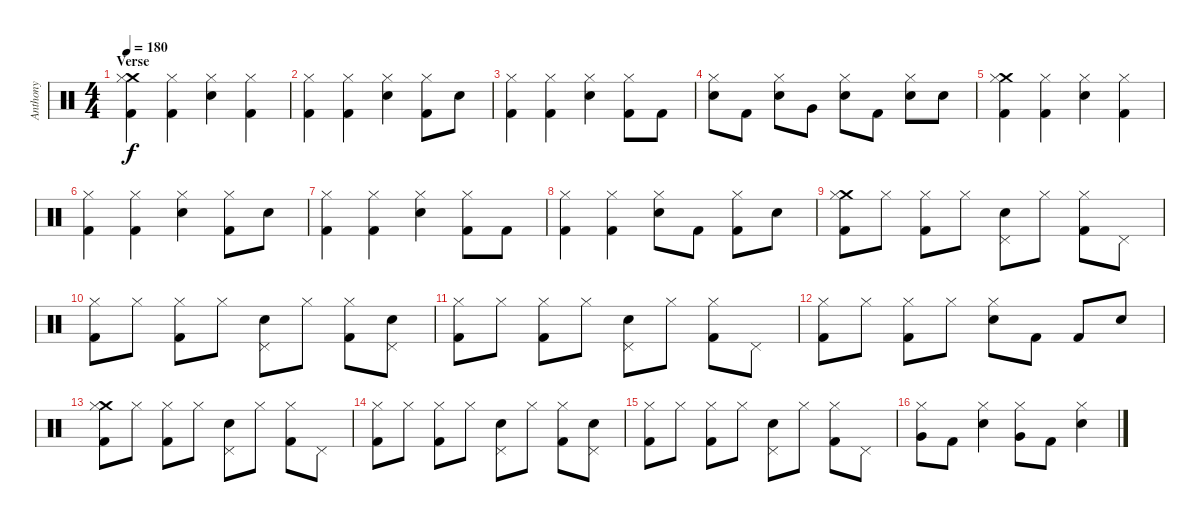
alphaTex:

\track ("Anthony" "Anthony") {instrument percussion}
\staff {score}
\articulation defaults
\ts (4 4)
\section ("" "Verse")
\tempo 180
\clef neutral
\ks c
("Crash medium (hit)" "Hi-Hat (closed)" "Kick (hit) 2").4{dy f} ("Hi-Hat (closed)" "Kick (hit) 2").4 ("Hi-Hat (closed)" "Electric Snare (hit)").4 ("Hi-Hat (closed)" "Kick (hit) 2").4 |
("Hi-Hat (closed)" "Kick (hit) 2").4 ("Hi-Hat (closed)" "Kick (hit) 2").4 ("Hi-Hat (closed)" "Electric Snare (hit)").4 ("Hi-Hat (closed)" "Kick (hit) 2").8 "Electric Snare (hit)".8 |
("Hi-Hat (closed)" "Kick (hit) 2").4 ("Hi-Hat (closed)" "Kick (hit) 2").4 ("Hi-Hat (closed)" "Electric Snare (hit)").4 ("Hi-Hat (closed)" "Kick (hit) 2").8 "Kick (hit) 2".8 |
("Hi-Hat (closed)" "Electric Snare (hit)").8 "Kick (hit) 2".8 ("Hi-Hat (closed)" "Electric Snare (hit)").8 "Very Low Tom (hit)".8 ("Hi-Hat (closed)" "Electric Snare (hit)").8 "Kick (hit) 2".8 ("Hi-Hat (closed)" "Electric Snare (hit)").8 "Electric Snare (hit)".8 |
("Crash medium (hit)" "Hi-Hat (closed)" "Kick (hit) 2").4 ("Hi-Hat (closed)" "Kick (hit) 2").4 ("Hi-Hat (closed)" "Electric Snare (hit)").4 ("Hi-Hat (closed)" "Kick (hit) 2").4 |
("Hi-Hat (closed)" "Kick (hit) 2").4 ("Hi-Hat (closed)" "Kick (hit) 2").4 ("Hi-Hat (closed)" "Electric Snare (hit)").4 ("Hi-Hat (closed)" "Kick (hit) 2").8 "Electric Snare (hit)".8 |
("Hi-Hat (closed)" "Kick (hit) 2").4 ("Hi-Hat (closed)" "Kick (hit) 2").4 ("Hi-Hat (closed)" "Electric Snare (hit)").4 ("Hi-Hat (closed)" "Kick (hit) 2").8 "Kick (hit) 2".8 |
("Hi-Hat (closed)" "Kick (hit) 2").4 ("Hi-Hat (closed)" "Kick (hit) 2").4 ("Hi-Hat (closed)" "Electric Snare (hit)").8 "Kick (hit) 2".8 ("Hi-Hat (closed)" "Kick (hit) 2").8 "Electric Snare (hit)".8 |
("Crash medium (hit)" "Hi-Hat (closed)" "Kick (hit) 2").8 "Hi-Hat (closed)".8 ("Hi-Hat (closed)" "Kick (hit) 2").8 "Hi-Hat (closed)".8 ("Pedal Hi-Hat (hit)" "Electric Snare (hit)").8 "Hi-Hat (closed)".8 ("Hi-Hat (closed)" "Kick (hit) 2").8 "Pedal Hi-Hat (hit)".8 |
("Hi-Hat (closed)" "Kick (hit) 2").8 "Hi-Hat (closed)".8 ("Hi-Hat (closed)" "Kick (hit) 2").8 "Hi-Hat (closed)".8 ("Pedal Hi-Hat (hit)" "Electric Snare (hit)").8 "Hi-Hat (closed)".8 ("Hi-Hat (closed)" "Kick (hit) 2").8 ("Pedal Hi-Hat (hit)" "Electric Snare (hit)").8 |
("Hi-Hat (closed)" "Kick (hit) 2").8 "Hi-Hat (closed)".8 ("Hi-Hat (closed)" "Kick (hit) 2").8 "Hi-Hat (closed)".8 ("Pedal Hi-Hat (hit)" "Electric Snare (hit)").8 "Hi-Hat (closed)".8 ("Hi-Hat (closed)" "Kick (hit) 2").8 "Pedal Hi-Hat (hit)".8 |
("Hi-Hat (closed)" "Kick (hit) 2").8 "Hi-Hat (closed)".8 ("Hi-Hat (closed)" "Kick (hit) 2").8 "Hi-Hat (closed)".8 ("Hi-Hat (closed)" "Electric Snare (hit)").8 "Kick (hit) 2".8 "Kick (hit) 2".8 "Electric Snare (hit)".8 |
("Crash medium (hit)" "Hi-Hat (closed)" "Kick (hit) 2").8 "Hi-Hat (closed)".8 ("Hi-Hat (closed)" "Kick (hit) 2").8 "Hi-Hat (closed)".8 ("Pedal Hi-Hat (hit)" "Electric Snare (hit)").8 "Hi-Hat (closed)".8 ("Hi-Hat (closed)" "Kick (hit) 2").8 "Pedal Hi-Hat (hit)".8 |
("Hi-Hat (closed)" "Kick (hit) 2").8 "Hi-Hat (closed)".8 ("Hi-Hat (closed)" "Kick (hit) 2").8 "Hi-Hat (closed)".8 ("Pedal Hi-Hat (hit)" "Electric Snare (hit)").8 "Hi-Hat (closed)".8 ("Hi-Hat (closed)" "Kick (hit) 2").8 ("Pedal Hi-Hat (hit)" "Electric Snare (hit)").8 |
("Hi-Hat (closed)" "Kick (hit) 2").8 "Hi-Hat (closed)".8 ("Hi-Hat (closed)" "Kick (hit) 2").8 "Hi-Hat (closed)".8 ("Pedal Hi-Hat (hit)" "Electric Snare (hit)").8 "Hi-Hat (closed)".8 ("Hi-Hat (closed)" "Kick (hit) 2").8 "Pedal Hi-Hat (hit)".8 |
("Hi-Hat (closed)" "Very Low Tom (hit)").8 "Kick (hit) 2".8 ("Hi-Hat (closed)" "Electric Snare (hit)").4 ("Hi-Hat (closed)" "Very Low Tom (hit)").8 "Kick (hit) 2".8 ("Hi-Hat (closed)" "Electric Snare (hit)").4
